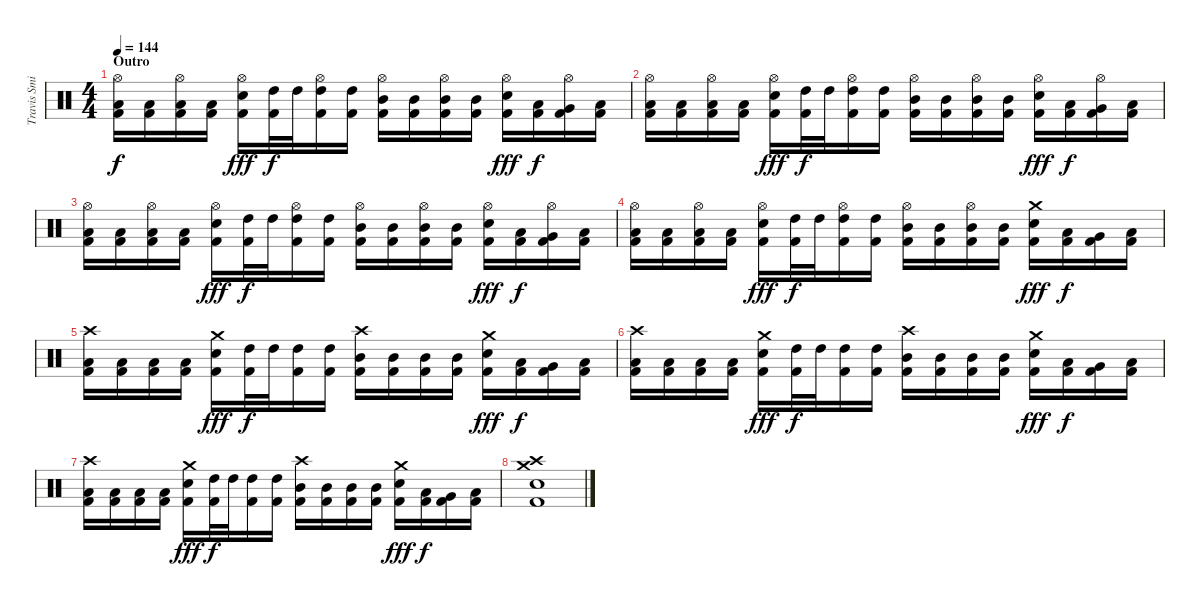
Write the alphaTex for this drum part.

\track ("Travis Smith" "Travis Smi") {instrument percussion}
\staff {score}
\articulation defaults
\ts (4 4)
\section ("" "Outro")
\tempo 144
\clef neutral
\ks c
("Hi-Hat (open)" "Low Tom (hit)" "Kick (hit) 2").16{dy f} ("Low Tom (hit)" "Kick (hit) 2").16 ("Hi-Hat (open)" "Low Tom (hit)" "Kick (hit) 2").16 ("Low Tom (hit)" "Kick (hit) 2").16 ("Hi-Hat (open)" "Electric Snare (hit)" "Kick (hit) 2").16{dy fff} ("High Tom (hit)" "Kick (hit) 2").32{dy f} "High Tom (hit)".32 ("Hi-Hat (open)" "High Tom (hit)" "Kick (hit) 2").16 ("High Tom (hit)" "Kick (hit) 2").16 ("Hi-Hat (open)" "Mid Tom (hit)" "Kick (hit) 2").16 ("Mid Tom (hit)" "Kick (hit) 2").16 ("Hi-Hat (open)" "Mid Tom (hit)" "Kick (hit) 2").16 ("Mid Tom (hit)" "Kick (hit) 2").16 ("Hi-Hat (open)" "Electric Snare (hit)" "Kick (hit) 2").16{dy fff} ("Low Tom (hit)" "Kick (hit) 2").16{dy f} ("Hi-Hat (open)" "Very Low Tom (hit)" "Kick (hit) 2").16 ("Low Floor Tom (hit)" "Kick (hit) 2").16 |
("Hi-Hat (open)" "Low Tom (hit)" "Kick (hit) 2").16 ("Low Tom (hit)" "Kick (hit) 2").16 ("Hi-Hat (open)" "Low Tom (hit)" "Kick (hit) 2").16 ("Low Tom (hit)" "Kick (hit) 2").16 ("Hi-Hat (open)" "Electric Snare (hit)" "Kick (hit) 2").16{dy fff} ("High Tom (hit)" "Kick (hit) 2").32{dy f} "High Tom (hit)".32 ("Hi-Hat (open)" "High Tom (hit)" "Kick (hit) 2").16 ("High Tom (hit)" "Kick (hit) 2").16 ("Hi-Hat (open)" "Mid Tom (hit)" "Kick (hit) 2").16 ("Mid Tom (hit)" "Kick (hit) 2").16 ("Hi-Hat (open)" "Mid Tom (hit)" "Kick (hit) 2").16 ("Mid Tom (hit)" "Kick (hit) 2").16 ("Hi-Hat (open)" "Electric Snare (hit)" "Kick (hit) 2").16{dy fff} ("Low Tom (hit)" "Kick (hit) 2").16{dy f} ("Hi-Hat (open)" "Very Low Tom (hit)" "Kick (hit) 2").16 ("Low Floor Tom (hit)" "Kick (hit) 2").16 |
("Hi-Hat (open)" "Low Tom (hit)" "Kick (hit) 2").16 ("Low Tom (hit)" "Kick (hit) 2").16 ("Hi-Hat (open)" "Low Tom (hit)" "Kick (hit) 2").16 ("Low Tom (hit)" "Kick (hit) 2").16 ("Hi-Hat (open)" "Electric Snare (hit)" "Kick (hit) 2").16{dy fff} ("High Tom (hit)" "Kick (hit) 2").32{dy f} "High Tom (hit)".32 ("Hi-Hat (open)" "High Tom (hit)" "Kick (hit) 2").16 ("High Tom (hit)" "Kick (hit) 2").16 ("Hi-Hat (open)" "Mid Tom (hit)" "Kick (hit) 2").16 ("Mid Tom (hit)" "Kick (hit) 2").16 ("Hi-Hat (open)" "Mid Tom (hit)" "Kick (hit) 2").16 ("Mid Tom (hit)" "Kick (hit) 2").16 ("Hi-Hat (open)" "Electric Snare (hit)" "Kick (hit) 2").16{dy fff} ("Low Tom (hit)" "Kick (hit) 2").16{dy f} ("Hi-Hat (open)" "Very Low Tom (hit)" "Kick (hit) 2").16 ("Low Floor Tom (hit)" "Kick (hit) 2").16 |
("Hi-Hat (open)" "Low Tom (hit)" "Kick (hit) 2").16 ("Low Tom (hit)" "Kick (hit) 2").16 ("Hi-Hat (open)" "Low Tom (hit)" "Kick (hit) 2").16 ("Low Tom (hit)" "Kick (hit) 2").16 ("Hi-Hat (open)" "Electric Snare (hit)" "Kick (hit) 2").16{dy fff} ("High Tom (hit)" "Kick (hit) 2").32{dy f} "High Tom (hit)".32 ("Hi-Hat (open)" "High Tom (hit)" "Kick (hit) 2").16 ("High Tom (hit)" "Kick (hit) 2").16 ("Hi-Hat (open)" "Mid Tom (hit)" "Kick (hit) 2").16 ("Mid Tom (hit)" "Kick (hit) 2").16 ("Hi-Hat (open)" "Mid Tom (hit)" "Kick (hit) 2").16 ("Mid Tom (hit)" "Kick (hit) 2").16 ("Crash medium (hit)" "Electric Snare (hit)" "Kick (hit) 2").16{dy fff} ("Low Tom (hit)" "Kick (hit) 2").16{dy f} ("Very Low Tom (hit)" "Kick (hit) 2").16 ("Low Floor Tom (hit)" "Kick (hit) 2").16 |
("Crash high (hit)" "Low Tom (hit)" "Kick (hit) 2").16 ("Low Tom (hit)" "Kick (hit) 2").16 ("Low Tom (hit)" "Kick (hit) 2").16 ("Low Tom (hit)" "Kick (hit) 2").16 ("Crash medium (hit)" "Electric Snare (hit)" "Kick (hit) 2").16{dy fff} ("High Tom (hit)" "Kick (hit) 2").32{dy f} "High Tom (hit)".32 ("High Tom (hit)" "Kick (hit) 2").16 ("High Tom (hit)" "Kick (hit) 2").16 ("Crash high (hit)" "Mid Tom (hit)" "Kick (hit) 2").16 ("Mid Tom (hit)" "Kick (hit) 2").16 ("Mid Tom (hit)" "Kick (hit) 2").16 ("Mid Tom (hit)" "Kick (hit) 2").16 ("Crash medium (hit)" "Electric Snare (hit)" "Kick (hit) 2").16{dy fff} ("Low Tom (hit)" "Kick (hit) 2").16{dy f} ("Very Low Tom (hit)" "Kick (hit) 2").16 ("Low Floor Tom (hit)" "Kick (hit) 2").16 |
("Crash high (hit)" "Low Tom (hit)" "Kick (hit) 2").16 ("Low Tom (hit)" "Kick (hit) 2").16 ("Low Tom (hit)" "Kick (hit) 2").16 ("Low Tom (hit)" "Kick (hit) 2").16 ("Crash medium (hit)" "Electric Snare (hit)" "Kick (hit) 2").16{dy fff} ("High Tom (hit)" "Kick (hit) 2").32{dy f} "High Tom (hit)".32 ("High Tom (hit)" "Kick (hit) 2").16 ("High Tom (hit)" "Kick (hit) 2").16 ("Crash high (hit)" "Mid Tom (hit)" "Kick (hit) 2").16 ("Mid Tom (hit)" "Kick (hit) 2").16 ("Mid Tom (hit)" "Kick (hit) 2").16 ("Mid Tom (hit)" "Kick (hit) 2").16 ("Crash medium (hit)" "Electric Snare (hit)" "Kick (hit) 2").16{dy fff} ("Low Tom (hit)" "Kick (hit) 2").16{dy f} ("Very Low Tom (hit)" "Kick (hit) 2").16 ("Low Floor Tom (hit)" "Kick (hit) 2").16 |
("Crash high (hit)" "Low Tom (hit)" "Kick (hit) 2").16 ("Low Tom (hit)" "Kick (hit) 2").16 ("Low Tom (hit)" "Kick (hit) 2").16 ("Low Tom (hit)" "Kick (hit) 2").16 ("Crash medium (hit)" "Electric Snare (hit)" "Kick (hit) 2").16{dy fff} ("High Tom (hit)" "Kick (hit) 2").32{dy f} "High Tom (hit)".32 ("High Tom (hit)" "Kick (hit) 2").16 ("High Tom (hit)" "Kick (hit) 2").16 ("Crash high (hit)" "Mid Tom (hit)" "Kick (hit) 2").16 ("Mid Tom (hit)" "Kick (hit) 2").16 ("Mid Tom (hit)" "Kick (hit) 2").16 ("Mid Tom (hit)" "Kick (hit) 2").16 ("Crash medium (hit)" "Electric Snare (hit)" "Kick (hit) 2").16{dy fff} ("Low Tom (hit)" "Kick (hit) 2").16{dy f} ("Very Low Tom (hit)" "Kick (hit) 2").16 ("Low Floor Tom (hit)" "Kick (hit) 2").16 |
("Crash high (hit)" "Crash medium (hit)" "Electric Snare (hit)" "Kick (hit) 2").1
